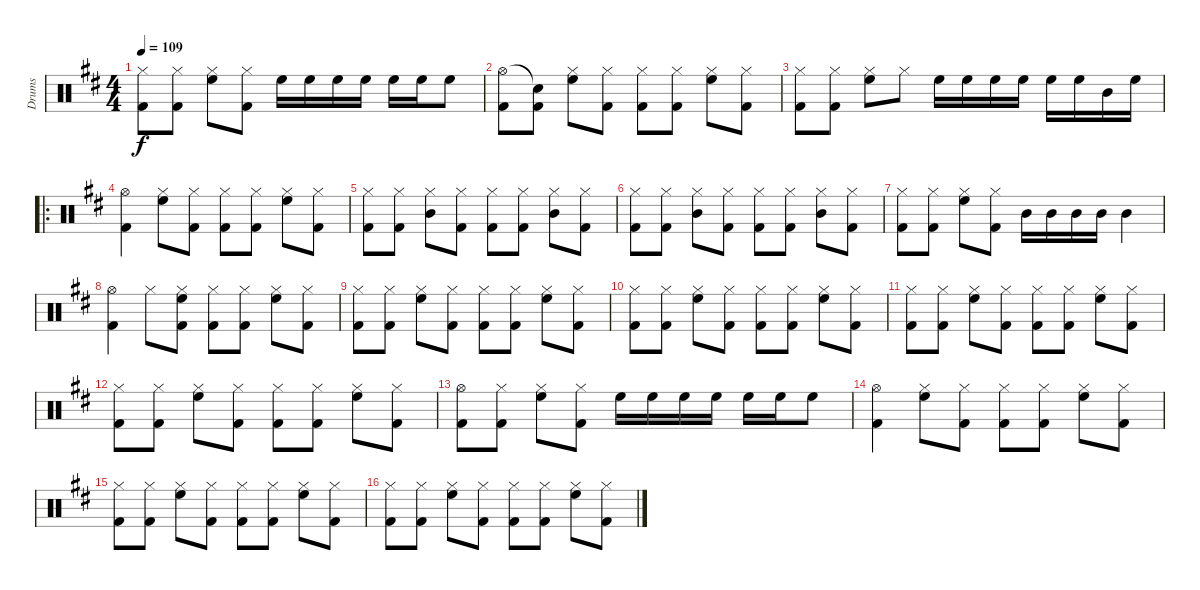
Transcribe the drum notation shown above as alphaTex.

\track ("Drums" "Drums") {instrument percussion}
\staff {score}
\articulation defaults
\ts (4 4)
\tempo 109
\clef neutral
\ks d
("Hi-Hat (closed)" "Kick (hit) 2").8{dy f} ("Hi-Hat (closed)" "Kick (hit) 2").8 ("Hi-Hat (closed)" "High Floor Tom (hit)").8 ("Hi-Hat (closed)" "Kick (hit) 2").8 "High Floor Tom (hit)".16 "High Floor Tom (hit)".16 "High Floor Tom (hit)".16 "High Floor Tom (hit)".16 "High Floor Tom (hit)".16 "High Floor Tom (hit)".16 "High Floor Tom (hit)".8 |
("Hi-Hat (open)" "Kick (hit) 2").8 ("Snare (hit)"{t} "Kick (hit) 2").8 ("Hi-Hat (closed)" "High Floor Tom (hit)").8 ("Hi-Hat (closed)" "Kick (hit) 2").8 ("Hi-Hat (closed)" "Kick (hit) 2").8 ("Hi-Hat (closed)" "Kick (hit) 2").8 ("Hi-Hat (closed)" "High Floor Tom (hit)").8 ("Hi-Hat (closed)" "Kick (hit) 2").8 |
("Hi-Hat (closed)" "Kick (hit) 2").8 ("Hi-Hat (closed)" "Kick (hit) 2").8 ("Hi-Hat (closed)" "High Floor Tom (hit)").8 "Hi-Hat (closed)".8 "High Floor Tom (hit)".16 "High Floor Tom (hit)".16 "High Floor Tom (hit)".16 "High Floor Tom (hit)".16 "High Floor Tom (hit)".16 "High Floor Tom (hit)".16 "Mid Tom (hit)".16 "High Floor Tom (hit)".16 |
\ro
("Hi-Hat (open)" "Kick (hit) 2").4 ("Hi-Hat (closed)" "High Floor Tom (hit)").8 ("Hi-Hat (closed)" "Kick (hit) 2").8 ("Hi-Hat (closed)" "Kick (hit) 2").8 ("Hi-Hat (closed)" "Kick (hit) 2").8 ("Hi-Hat (closed)" "High Floor Tom (hit)").8 ("Hi-Hat (closed)" "Kick (hit) 2").8 |
("Hi-Hat (closed)" "Kick (hit) 2").8 ("Hi-Hat (closed)" "Kick (hit) 2").8 ("Hi-Hat (closed)" "Mid Tom (hit)").8 ("Hi-Hat (closed)" "Kick (hit) 2").8 ("Hi-Hat (closed)" "Kick (hit) 2").8 ("Hi-Hat (closed)" "Kick (hit) 2").8 ("Hi-Hat (closed)" "Mid Tom (hit)").8 ("Hi-Hat (closed)" "Kick (hit) 2").8 |
("Hi-Hat (closed)" "Kick (hit) 2").8 ("Hi-Hat (closed)" "Kick (hit) 2").8 ("Hi-Hat (closed)" "Mid Tom (hit)").8 ("Hi-Hat (closed)" "Kick (hit) 2").8 ("Hi-Hat (closed)" "Kick (hit) 2").8 ("Hi-Hat (closed)" "Kick (hit) 2").8 ("Hi-Hat (closed)" "Mid Tom (hit)").8 ("Hi-Hat (closed)" "Kick (hit) 2").8 |
("Hi-Hat (closed)" "Kick (hit) 2").8 ("Hi-Hat (closed)" "Kick (hit) 2").8 ("Hi-Hat (closed)" "High Floor Tom (hit)").8 ("Hi-Hat (closed)" "Kick (hit) 2").8 "Mid Tom (hit)".16 "Mid Tom (hit)".16 "Mid Tom (hit)".16 "Mid Tom (hit)".16 "Mid Tom (hit)".4 |
("Hi-Hat (open)" "Kick (hit) 2").4 "Hi-Hat (closed)".8 ("Hi-Hat (closed)" "High Floor Tom (hit)" "Kick (hit) 2").8 ("Hi-Hat (closed)" "Kick (hit) 2").8 ("Hi-Hat (closed)" "Kick (hit) 2").8 ("Hi-Hat (closed)" "High Floor Tom (hit)").8 ("Hi-Hat (closed)" "Kick (hit) 2").8 |
("Hi-Hat (closed)" "Kick (hit) 2").8 ("Hi-Hat (closed)" "Kick (hit) 2").8 ("Hi-Hat (closed)" "High Floor Tom (hit)").8 ("Hi-Hat (closed)" "Kick (hit) 2").8 ("Hi-Hat (closed)" "Kick (hit) 2").8 ("Hi-Hat (closed)" "Kick (hit) 2").8 ("Hi-Hat (closed)" "High Floor Tom (hit)").8 ("Hi-Hat (closed)" "Kick (hit) 2").8 |
("Hi-Hat (closed)" "Kick (hit) 2").8 ("Hi-Hat (closed)" "Kick (hit) 2").8 ("Hi-Hat (closed)" "High Floor Tom (hit)").8 ("Hi-Hat (closed)" "Kick (hit) 2").8 ("Hi-Hat (closed)" "Kick (hit) 2").8 ("Hi-Hat (closed)" "Kick (hit) 2").8 ("Hi-Hat (closed)" "High Floor Tom (hit)").8 ("Hi-Hat (closed)" "Kick (hit) 2").8 |
("Hi-Hat (closed)" "Kick (hit) 2").8 ("Hi-Hat (closed)" "Kick (hit) 2").8 ("Hi-Hat (closed)" "High Floor Tom (hit)").8 ("Hi-Hat (closed)" "Kick (hit) 2").8 ("Hi-Hat (closed)" "Kick (hit) 2").8 ("Hi-Hat (closed)" "Kick (hit) 2").8 ("Hi-Hat (closed)" "High Floor Tom (hit)").8 ("Hi-Hat (closed)" "Kick (hit) 2").8 |
("Hi-Hat (closed)" "Kick (hit) 2").8 ("Hi-Hat (closed)" "Kick (hit) 2").8 ("Hi-Hat (closed)" "High Floor Tom (hit)").8 ("Hi-Hat (closed)" "Kick (hit) 2").8 ("Hi-Hat (closed)" "Kick (hit) 2").8 ("Hi-Hat (closed)" "Kick (hit) 2").8 ("Hi-Hat (closed)" "High Floor Tom (hit)").8 ("Hi-Hat (closed)" "Kick (hit) 2").8 |
("Hi-Hat (open)" "Kick (hit) 2").8 ("Hi-Hat (closed)" "Kick (hit) 2").8 ("Hi-Hat (closed)" "High Floor Tom (hit)").8 ("Hi-Hat (closed)" "Kick (hit) 2").8 "High Floor Tom (hit)".16 "High Floor Tom (hit)".16 "High Floor Tom (hit)".16 "High Floor Tom (hit)".16 "High Floor Tom (hit)".16 "High Floor Tom (hit)".16 "High Floor Tom (hit)".8 |
("Hi-Hat (open)" "Kick (hit) 2").4 ("Hi-Hat (closed)" "High Floor Tom (hit)").8 ("Hi-Hat (closed)" "Kick (hit) 2").8 ("Hi-Hat (closed)" "Kick (hit) 2").8 ("Hi-Hat (closed)" "Kick (hit) 2").8 ("Hi-Hat (closed)" "High Floor Tom (hit)").8 ("Hi-Hat (closed)" "Kick (hit) 2").8 |
("Hi-Hat (closed)" "Kick (hit) 2").8 ("Hi-Hat (closed)" "Kick (hit) 2").8 ("Hi-Hat (closed)" "High Floor Tom (hit)").8 ("Hi-Hat (closed)" "Kick (hit) 2").8 ("Hi-Hat (closed)" "Kick (hit) 2").8 ("Hi-Hat (closed)" "Kick (hit) 2").8 ("Hi-Hat (closed)" "High Floor Tom (hit)").8 ("Hi-Hat (closed)" "Kick (hit) 2").8 |
("Hi-Hat (closed)" "Kick (hit) 2").8 ("Hi-Hat (closed)" "Kick (hit) 2").8 ("Hi-Hat (closed)" "High Floor Tom (hit)").8 ("Hi-Hat (closed)" "Kick (hit) 2").8 ("Hi-Hat (closed)" "Kick (hit) 2").8 ("Hi-Hat (closed)" "Kick (hit) 2").8 ("Hi-Hat (closed)" "High Floor Tom (hit)").8 ("Hi-Hat (closed)" "Kick (hit) 2").8
